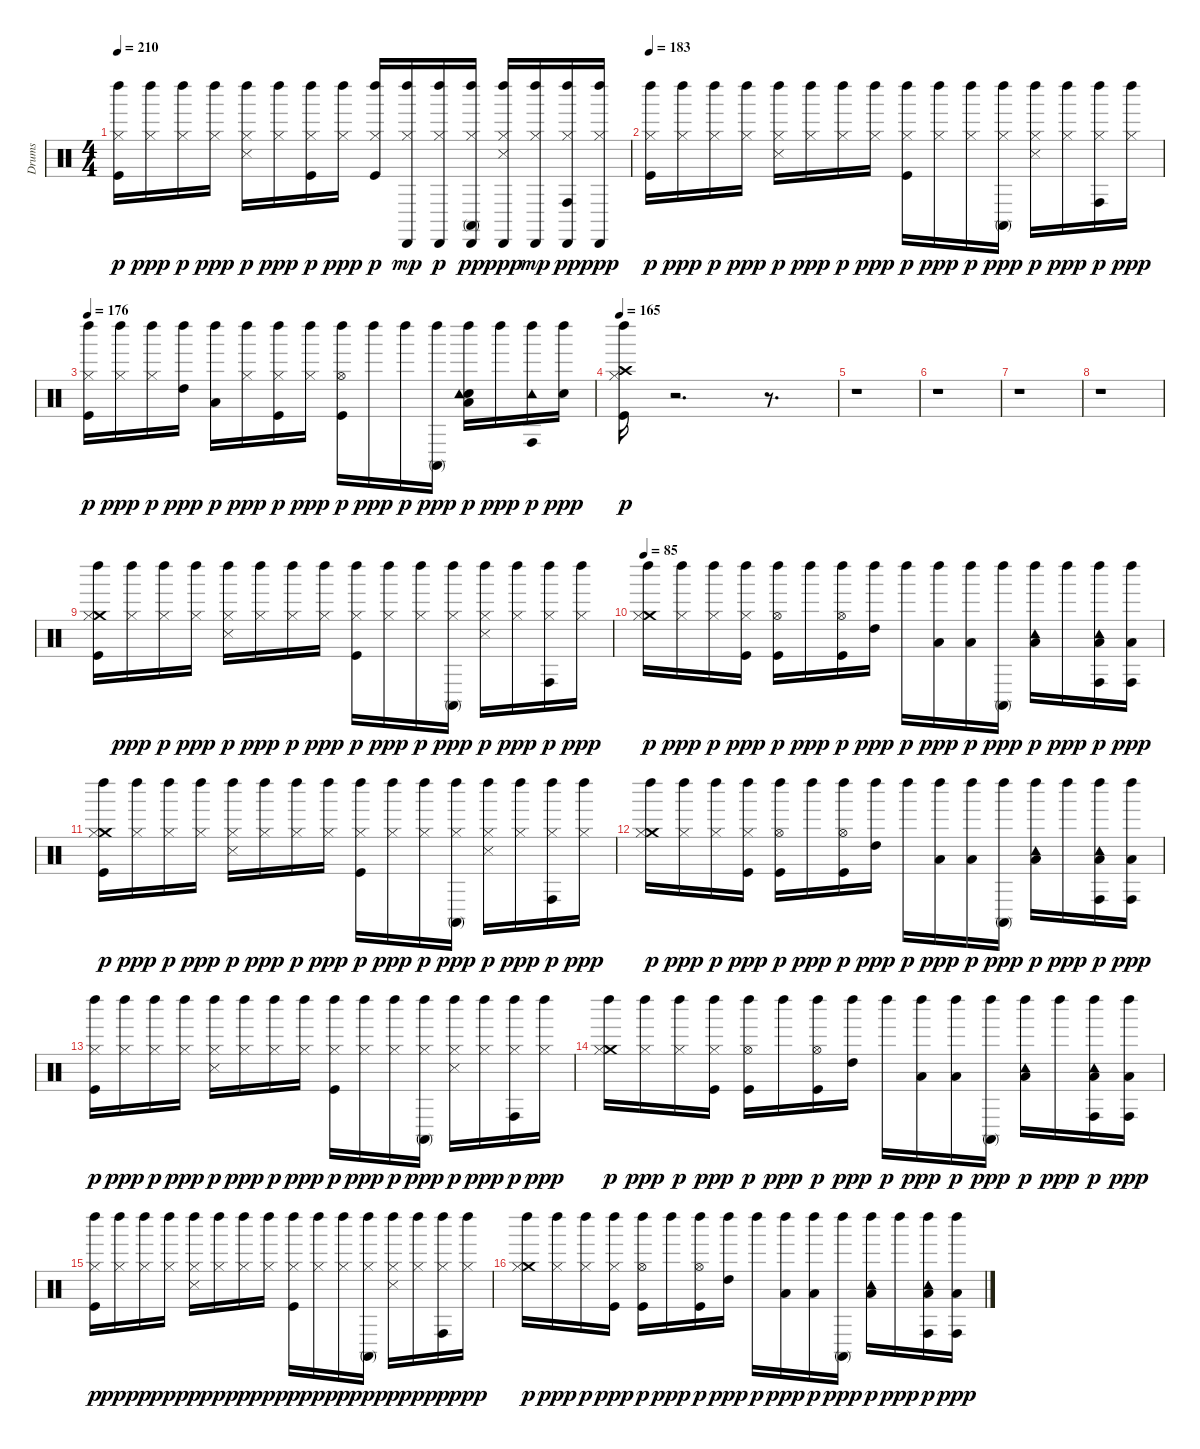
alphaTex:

\track ("Drums" "Drums") {instrument percussion}
\staff {score}
\articulation defaults
\ts (4 4)
\tempo 210
\clef neutral
\ks c
("Kick (hit)" "Hi-Hat (closed)" "Left Maraca (hit)").16{dy p} ("Hi-Hat (closed)" "Left Maraca (hit)").16{dy ppp} ("Hi-Hat (closed)" "Left Maraca (hit)").16{dy p} ("Hi-Hat (closed)" "Left Maraca (hit)").16{dy ppp} ("Hi-Hat (closed)" "Snare (side stick) 3" "Left Maraca (hit)").16{dy p} ("Hi-Hat (closed)" "Left Maraca (hit)").16{dy ppp} ("Kick (hit)" "Hi-Hat (closed)" "Left Maraca (hit)").16{dy p} ("Hi-Hat (closed)" "Left Maraca (hit)").16{dy ppp} ("Kick (hit)" "Hi-Hat (closed)" "Left Maraca (hit)").16{dy p} ("Hi-Hat (closed)" "Left Maraca (hit)" "Cabasa (hit)").16{dy mp} ("Hi-Hat (closed)" "Left Maraca (hit)" "Cabasa (hit)").16{dy p} ("Hi-Hat (closed)" "Conga high (mute)" "Left Maraca (hit)" "Cabasa (hit)").16{dy pp} ("Hi-Hat (closed)" "Snare (side stick) 3" "Left Maraca (hit)" "Cabasa (hit)").16{dy ppp} ("Hi-Hat (closed)" "Left Maraca (hit)" "Cabasa (hit)").16{dy mp} ("Hi-Hat (closed)" "Conga high (hit)" "Left Maraca (hit)" "Cabasa (hit)").16{dy pp} ("Hi-Hat (closed)" "Left Maraca (hit)" "Cabasa (hit)").16{dy ppp} |
\tempo 183
("Kick (hit)" "Hi-Hat (closed)" "Left Maraca (hit)").16{dy p} ("Hi-Hat (closed)" "Left Maraca (hit)").16{dy ppp} ("Hi-Hat (closed)" "Left Maraca (hit)").16{dy p} ("Hi-Hat (closed)" "Left Maraca (hit)").16{dy ppp} ("Hi-Hat (closed)" "Snare (side stick) 3" "Left Maraca (hit)").16{dy p} ("Hi-Hat (closed)" "Left Maraca (hit)").16{dy ppp} ("Hi-Hat (closed)" "Left Maraca (hit)").16{dy p} ("Hi-Hat (closed)" "Left Maraca (hit)").16{dy ppp} ("Kick (hit)" "Hi-Hat (closed)" "Left Maraca (hit)").16{dy p} ("Hi-Hat (closed)" "Left Maraca (hit)").16{dy ppp} ("Hi-Hat (closed)" "Left Maraca (hit)").16{dy p} ("Hi-Hat (closed)" "Conga high (mute)" "Left Maraca (hit)").16{dy ppp} ("Hi-Hat (closed)" "Snare (side stick) 3" "Left Maraca (hit)").16{dy p} ("Hi-Hat (closed)" "Left Maraca (hit)").16{dy ppp} ("Hi-Hat (closed)" "Conga high (hit)" "Left Maraca (hit)").16{dy p} ("Hi-Hat (closed)" "Left Maraca (hit)").16{dy ppp} |
\tempo 176
("Kick (hit)" "Hi-Hat (closed)" "Left Maraca (hit)").16{dy p} ("Hi-Hat (closed)" "Left Maraca (hit)").16{dy ppp} ("Hi-Hat (closed)" "Left Maraca (hit)").16{dy p} ("High Tom (hit)" "Left Maraca (hit)").16{dy ppp} ("Low Tom (hit)" "Left Maraca (hit)").16{dy p} ("Hi-Hat (closed)" "Left Maraca (hit)").16{dy ppp} ("Kick (hit)" "Hi-Hat (closed)" "Left Maraca (hit)").16{dy p} ("Hi-Hat (closed)" "Left Maraca (hit)").16{dy ppp} ("Kick (hit)" "Hi-Hat (open)" "Left Maraca (hit)").16{dy p} "Left Maraca (hit)".16{dy ppp} "Left Maraca (hit)".16{dy p} ("Conga high (mute)" "Left Maraca (hit)").16{dy ppp} ("Snare (hit) 2" "Low Floor Tom (hit)" "Tambourine (hit)" "Left Maraca (hit)").16{dy p} "Left Maraca (hit)".16{dy ppp} ("Conga high (hit)" "Tambourine (hit)" "Left Maraca (hit)").16{dy p} ("Snare (hit) 2" "Left Maraca (hit)").16{dy ppp} |
\tempo 165
("Kick (hit)" "Hi-Hat (closed)" "Crash high (hit)" "Left Maraca (hit)").16{dy p} r.2{d} r.8{d} |
r.1 |
r.1 |
r.1 |
r.1 |
("Crash medium (hit)" "Kick (hit)" "Hi-Hat (closed)" "Left Maraca (hit)").16 ("Hi-Hat (closed)" "Left Maraca (hit)").16{dy ppp} ("Hi-Hat (closed)" "Left Maraca (hit)").16{dy p} ("Hi-Hat (closed)" "Left Maraca (hit)").16{dy ppp} ("Hi-Hat (closed)" "Snare (side stick) 3" "Left Maraca (hit)").16{dy p} ("Hi-Hat (closed)" "Left Maraca (hit)").16{dy ppp} ("Hi-Hat (closed)" "Left Maraca (hit)").16{dy p} ("Hi-Hat (closed)" "Left Maraca (hit)").16{dy ppp} ("Kick (hit)" "Hi-Hat (closed)" "Left Maraca (hit)").16{dy p} ("Hi-Hat (closed)" "Left Maraca (hit)").16{dy ppp} ("Hi-Hat (closed)" "Left Maraca (hit)").16{dy p} ("Hi-Hat (closed)" "Conga high (mute)" "Left Maraca (hit)").16{dy ppp} ("Hi-Hat (closed)" "Snare (side stick) 3" "Left Maraca (hit)").16{dy p} ("Hi-Hat (closed)" "Left Maraca (hit)").16{dy ppp} ("Hi-Hat (closed)" "Conga high (hit)" "Left Maraca (hit)").16{dy p} ("Hi-Hat (closed)" "Left Maraca (hit)").16{dy ppp} |
\tempo 85
("Crash medium (hit)" "Hi-Hat (closed)" "Left Maraca (hit)").16{dy p} ("Hi-Hat (closed)" "Left Maraca (hit)").16{dy ppp} ("Hi-Hat (closed)" "Left Maraca (hit)").16{dy p} ("Kick (hit)" "Hi-Hat (closed)" "Left Maraca (hit)").16{dy ppp} ("Kick (hit)" "Hi-Hat (open)" "Left Maraca (hit)").16{dy p} "Left Maraca (hit)".16{dy ppp} ("Kick (hit)" "Hi-Hat (open)" "Left Maraca (hit)").16{dy p} ("High Tom (hit)" "Left Maraca (hit)").16{dy ppp} "Left Maraca (hit)".16{dy p} ("Low Tom (hit)" "Left Maraca (hit)").16{dy ppp} ("Low Tom (hit)" "Left Maraca (hit)").16{dy p} ("Conga high (mute)" "Left Maraca (hit)").16{dy ppp} ("Low Tom (hit)" "Tambourine (hit)" "Left Maraca (hit)").16{dy p} "Left Maraca (hit)".16{dy ppp} ("Low Floor Tom (hit)" "Conga high (hit)" "Tambourine (hit)" "Left Maraca (hit)").16{dy p} ("Low Floor Tom (hit)" "Conga high (hit)" "Left Maraca (hit)").16{dy ppp} |
("Crash medium (hit)" "Kick (hit)" "Hi-Hat (closed)" "Left Maraca (hit)").16{dy p} ("Hi-Hat (closed)" "Left Maraca (hit)").16{dy ppp} ("Hi-Hat (closed)" "Left Maraca (hit)").16{dy p} ("Hi-Hat (closed)" "Left Maraca (hit)").16{dy ppp} ("Hi-Hat (closed)" "Snare (side stick) 3" "Left Maraca (hit)").16{dy p} ("Hi-Hat (closed)" "Left Maraca (hit)").16{dy ppp} ("Hi-Hat (closed)" "Left Maraca (hit)").16{dy p} ("Hi-Hat (closed)" "Left Maraca (hit)").16{dy ppp} ("Kick (hit)" "Hi-Hat (closed)" "Left Maraca (hit)").16{dy p} ("Hi-Hat (closed)" "Left Maraca (hit)").16{dy ppp} ("Hi-Hat (closed)" "Left Maraca (hit)").16{dy p} ("Hi-Hat (closed)" "Conga high (mute)" "Left Maraca (hit)").16{dy ppp} ("Hi-Hat (closed)" "Snare (side stick) 3" "Left Maraca (hit)").16{dy p} ("Hi-Hat (closed)" "Left Maraca (hit)").16{dy ppp} ("Hi-Hat (closed)" "Conga high (hit)" "Left Maraca (hit)").16{dy p} ("Hi-Hat (closed)" "Left Maraca (hit)").16{dy ppp} |
("Crash medium (hit)" "Hi-Hat (closed)" "Left Maraca (hit)").16{dy p} ("Hi-Hat (closed)" "Left Maraca (hit)").16{dy ppp} ("Hi-Hat (closed)" "Left Maraca (hit)").16{dy p} ("Kick (hit)" "Hi-Hat (closed)" "Left Maraca (hit)").16{dy ppp} ("Kick (hit)" "Hi-Hat (open)" "Left Maraca (hit)").16{dy p} "Left Maraca (hit)".16{dy ppp} ("Kick (hit)" "Hi-Hat (open)" "Left Maraca (hit)").16{dy p} ("High Tom (hit)" "Left Maraca (hit)").16{dy ppp} "Left Maraca (hit)".16{dy p} ("Low Tom (hit)" "Left Maraca (hit)").16{dy ppp} ("Low Tom (hit)" "Left Maraca (hit)").16{dy p} ("Conga high (mute)" "Left Maraca (hit)").16{dy ppp} ("Low Tom (hit)" "Tambourine (hit)" "Left Maraca (hit)").16{dy p} "Left Maraca (hit)".16{dy ppp} ("Low Floor Tom (hit)" "Conga high (hit)" "Tambourine (hit)" "Left Maraca (hit)").16{dy p} ("Low Floor Tom (hit)" "Conga high (hit)" "Left Maraca (hit)").16{dy ppp} |
("Kick (hit)" "Hi-Hat (closed)" "Left Maraca (hit)").16{dy p} ("Hi-Hat (closed)" "Left Maraca (hit)").16{dy ppp} ("Hi-Hat (closed)" "Left Maraca (hit)").16{dy p} ("Hi-Hat (closed)" "Left Maraca (hit)").16{dy ppp} ("Hi-Hat (closed)" "Snare (side stick) 3" "Left Maraca (hit)").16{dy p} ("Hi-Hat (closed)" "Left Maraca (hit)").16{dy ppp} ("Hi-Hat (closed)" "Left Maraca (hit)").16{dy p} ("Hi-Hat (closed)" "Left Maraca (hit)").16{dy ppp} ("Kick (hit)" "Hi-Hat (closed)" "Left Maraca (hit)").16{dy p} ("Hi-Hat (closed)" "Left Maraca (hit)").16{dy ppp} ("Hi-Hat (closed)" "Left Maraca (hit)").16{dy p} ("Hi-Hat (closed)" "Conga high (mute)" "Left Maraca (hit)").16{dy ppp} ("Hi-Hat (closed)" "Snare (side stick) 3" "Left Maraca (hit)").16{dy p} ("Hi-Hat (closed)" "Left Maraca (hit)").16{dy ppp} ("Hi-Hat (closed)" "Conga high (hit)" "Left Maraca (hit)").16{dy p} ("Hi-Hat (closed)" "Left Maraca (hit)").16{dy ppp} |
("Crash medium (hit)" "Hi-Hat (closed)" "Left Maraca (hit)").16{dy p} ("Hi-Hat (closed)" "Left Maraca (hit)").16{dy ppp} ("Hi-Hat (closed)" "Left Maraca (hit)").16{dy p} ("Kick (hit)" "Hi-Hat (closed)" "Left Maraca (hit)").16{dy ppp} ("Kick (hit)" "Hi-Hat (open)" "Left Maraca (hit)").16{dy p} "Left Maraca (hit)".16{dy ppp} ("Kick (hit)" "Hi-Hat (open)" "Left Maraca (hit)").16{dy p} ("High Tom (hit)" "Left Maraca (hit)").16{dy ppp} "Left Maraca (hit)".16{dy p} ("Low Tom (hit)" "Left Maraca (hit)").16{dy ppp} ("Low Tom (hit)" "Left Maraca (hit)").16{dy p} ("Conga high (mute)" "Left Maraca (hit)").16{dy ppp} ("Low Tom (hit)" "Tambourine (hit)" "Left Maraca (hit)").16{dy p} "Left Maraca (hit)".16{dy ppp} ("Low Floor Tom (hit)" "Conga high (hit)" "Tambourine (hit)" "Left Maraca (hit)").16{dy p} ("Low Floor Tom (hit)" "Conga high (hit)" "Left Maraca (hit)").16{dy ppp} |
("Kick (hit)" "Hi-Hat (closed)" "Left Maraca (hit)").16{dy p} ("Hi-Hat (closed)" "Left Maraca (hit)").16{dy ppp} ("Hi-Hat (closed)" "Left Maraca (hit)").16{dy p} ("Hi-Hat (closed)" "Left Maraca (hit)").16{dy ppp} ("Hi-Hat (closed)" "Snare (side stick) 3" "Left Maraca (hit)").16{dy p} ("Hi-Hat (closed)" "Left Maraca (hit)").16{dy ppp} ("Hi-Hat (closed)" "Left Maraca (hit)").16{dy p} ("Hi-Hat (closed)" "Left Maraca (hit)").16{dy ppp} ("Kick (hit)" "Hi-Hat (closed)" "Left Maraca (hit)").16{dy p} ("Hi-Hat (closed)" "Left Maraca (hit)").16{dy ppp} ("Hi-Hat (closed)" "Left Maraca (hit)").16{dy p} ("Hi-Hat (closed)" "Conga high (mute)" "Left Maraca (hit)").16{dy ppp} ("Hi-Hat (closed)" "Snare (side stick) 3" "Left Maraca (hit)").16{dy p} ("Hi-Hat (closed)" "Left Maraca (hit)").16{dy ppp} ("Hi-Hat (closed)" "Conga high (hit)" "Left Maraca (hit)").16{dy p} ("Hi-Hat (closed)" "Left Maraca (hit)").16{dy ppp} |
("Crash medium (hit)" "Hi-Hat (closed)" "Left Maraca (hit)").16{dy p} ("Hi-Hat (closed)" "Left Maraca (hit)").16{dy ppp} ("Hi-Hat (closed)" "Left Maraca (hit)").16{dy p} ("Kick (hit)" "Hi-Hat (closed)" "Left Maraca (hit)").16{dy ppp} ("Kick (hit)" "Hi-Hat (open)" "Left Maraca (hit)").16{dy p} "Left Maraca (hit)".16{dy ppp} ("Kick (hit)" "Hi-Hat (open)" "Left Maraca (hit)").16{dy p} ("High Tom (hit)" "Left Maraca (hit)").16{dy ppp} "Left Maraca (hit)".16{dy p} ("Low Tom (hit)" "Left Maraca (hit)").16{dy ppp} ("Low Tom (hit)" "Left Maraca (hit)").16{dy p} ("Conga high (mute)" "Left Maraca (hit)").16{dy ppp} ("Low Tom (hit)" "Tambourine (hit)" "Left Maraca (hit)").16{dy p} "Left Maraca (hit)".16{dy ppp} ("Low Floor Tom (hit)" "Conga high (hit)" "Tambourine (hit)" "Left Maraca (hit)").16{dy p} ("Low Floor Tom (hit)" "Conga high (hit)" "Left Maraca (hit)").16{dy ppp}
